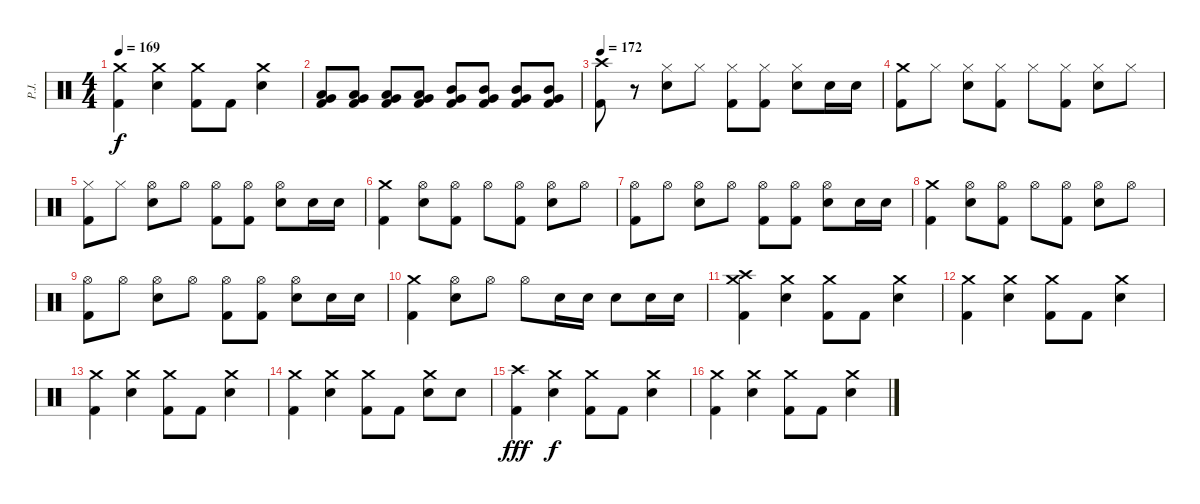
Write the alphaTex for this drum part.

\track ("P.J." "P.J.") {instrument percussion}
\staff {score}
\articulation defaults
\ts (4 4)
\tempo 169
\clef neutral
\ks c
("Crash medium (hit)" "Kick (hit) 2").4{dy f} ("Crash medium (hit)" "Electric Snare (hit)").4 ("Crash medium (hit)" "Kick (hit) 2").8 "Kick (hit) 2".8 ("Crash medium (hit)" "Electric Snare (hit)").4 |
("Low Tom (hit)" "Very Low Tom (hit)" "Kick (hit) 2").8 ("Low Tom (hit)" "Very Low Tom (hit)" "Kick (hit) 2").8 ("Low Tom (hit)" "Very Low Tom (hit)" "Kick (hit) 2").8 ("Low Tom (hit)" "Very Low Tom (hit)" "Kick (hit) 2").8 ("Mid Tom (hit)" "Very Low Tom (hit)" "Kick (hit) 2").8 ("Mid Tom (hit)" "Very Low Tom (hit)" "Kick (hit) 2").8 ("Mid Tom (hit)" "Very Low Tom (hit)" "Kick (hit) 2").8 ("Mid Tom (hit)" "Very Low Tom (hit)" "Kick (hit) 2").8 |
\tempo 172
("Crash high (hit)" "Kick (hit) 2").8 r.8 ("Hi-Hat (closed)" "Electric Snare (hit)").8 "Hi-Hat (closed)".8 ("Hi-Hat (closed)" "Kick (hit) 2").8 ("Hi-Hat (closed)" "Kick (hit) 2").8 ("Hi-Hat (closed)" "Electric Snare (hit)").8 "Electric Snare (hit)".16 "Electric Snare (hit)".16 |
("Crash medium (hit)" "Kick (hit) 2").8 "Hi-Hat (closed)".8 ("Hi-Hat (closed)" "Electric Snare (hit)").8 ("Hi-Hat (closed)" "Kick (hit) 2").8 "Hi-Hat (closed)".8 ("Hi-Hat (closed)" "Kick (hit) 2").8 ("Hi-Hat (closed)" "Electric Snare (hit)").8 "Hi-Hat (closed)".8 |
("Hi-Hat (closed)" "Kick (hit) 2").8 "Hi-Hat (closed)".8 ("Hi-Hat (open)" "Electric Snare (hit)").8 "Hi-Hat (open)".8 ("Hi-Hat (open)" "Kick (hit) 2").8 ("Hi-Hat (open)" "Kick (hit) 2").8 ("Hi-Hat (open)" "Electric Snare (hit)").8 "Electric Snare (hit)".16 "Electric Snare (hit)".16 |
("Crash medium (hit)" "Kick (hit) 2").4 ("Hi-Hat (open)" "Electric Snare (hit)").8 ("Hi-Hat (open)" "Kick (hit) 2").8 "Hi-Hat (open)".8 ("Hi-Hat (open)" "Kick (hit) 2").8 ("Hi-Hat (open)" "Electric Snare (hit)").8 "Hi-Hat (open)".8 |
("Hi-Hat (open)" "Kick (hit) 2").8 "Hi-Hat (open)".8 ("Hi-Hat (open)" "Electric Snare (hit)").8 "Hi-Hat (open)".8 ("Hi-Hat (open)" "Kick (hit) 2").8 ("Hi-Hat (open)" "Kick (hit) 2").8 ("Hi-Hat (open)" "Electric Snare (hit)").8 "Electric Snare (hit)".16 "Electric Snare (hit)".16 |
("Crash medium (hit)" "Kick (hit) 2").4 ("Hi-Hat (open)" "Electric Snare (hit)").8 ("Hi-Hat (open)" "Kick (hit) 2").8 "Hi-Hat (open)".8 ("Hi-Hat (open)" "Kick (hit) 2").8 ("Hi-Hat (open)" "Electric Snare (hit)").8 "Hi-Hat (open)".8 |
("Hi-Hat (open)" "Kick (hit) 2").8 "Hi-Hat (open)".8 ("Hi-Hat (open)" "Electric Snare (hit)").8 "Hi-Hat (open)".8 ("Hi-Hat (open)" "Kick (hit) 2").8 ("Hi-Hat (open)" "Kick (hit) 2").8 ("Hi-Hat (open)" "Electric Snare (hit)").8 "Electric Snare (hit)".16 "Electric Snare (hit)".16 |
("Crash medium (hit)" "Kick (hit) 2").4 ("Hi-Hat (open)" "Electric Snare (hit)").8 "Hi-Hat (open)".8 "Hi-Hat (open)".8 "Electric Snare (hit)".16 "Electric Snare (hit)".16 "Electric Snare (hit)".8 "Electric Snare (hit)".16 "Electric Snare (hit)".16 |
("Crash high (hit)" "Crash medium (hit)" "Kick (hit) 2").4 ("Crash medium (hit)" "Electric Snare (hit)").4 ("Crash medium (hit)" "Kick (hit) 2").8 "Kick (hit) 2".8 ("Crash medium (hit)" "Electric Snare (hit)").4 |
("Crash medium (hit)" "Kick (hit) 2").4 ("Crash medium (hit)" "Electric Snare (hit)").4 ("Crash medium (hit)" "Kick (hit) 2").8 "Kick (hit) 2".8 ("Crash medium (hit)" "Electric Snare (hit)").4 |
("Crash medium (hit)" "Kick (hit) 2").4 ("Crash medium (hit)" "Electric Snare (hit)").4 ("Crash medium (hit)" "Kick (hit) 2").8 "Kick (hit) 2".8 ("Crash medium (hit)" "Electric Snare (hit)").4 |
("Crash medium (hit)" "Kick (hit) 2").4 ("Crash medium (hit)" "Electric Snare (hit)").4 ("Crash medium (hit)" "Kick (hit) 2").8 "Kick (hit) 2".8 ("Crash medium (hit)" "Electric Snare (hit)").8 "Electric Snare (hit)".8 |
("Crash high (hit)" "Kick (hit) 2").4{dy fff} ("Crash medium (hit)" "Electric Snare (hit)").4{dy f} ("Crash medium (hit)" "Kick (hit) 2").8 "Kick (hit) 2".8 ("Crash medium (hit)" "Electric Snare (hit)").4 |
("Crash medium (hit)" "Kick (hit) 2").4 ("Crash medium (hit)" "Electric Snare (hit)").4 ("Crash medium (hit)" "Kick (hit) 2").8 "Kick (hit) 2".8 ("Crash medium (hit)" "Electric Snare (hit)").4
